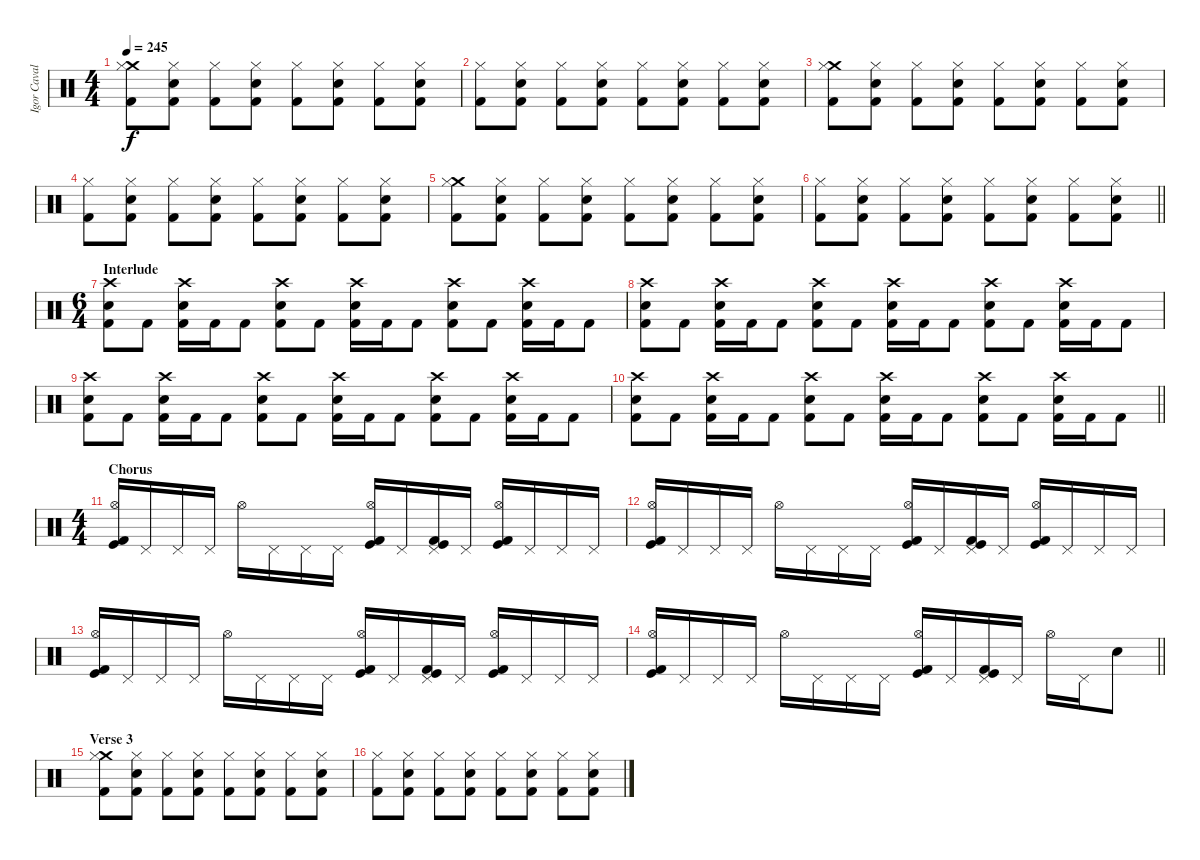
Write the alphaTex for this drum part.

\track ("Igor Cavalera" "Igor Caval") {instrument percussion}
\staff {score}
\articulation defaults
\ts (4 4)
\tempo 245
\clef neutral
\ks c
("Crash medium (hit)" "Hi-Hat (closed)" "Kick (hit) 2").8{dy f} ("Hi-Hat (closed)" "Electric Snare (hit)" "Kick (hit) 2").8 ("Hi-Hat (closed)" "Kick (hit) 2").8 ("Hi-Hat (closed)" "Electric Snare (hit)" "Kick (hit) 2").8 ("Hi-Hat (closed)" "Kick (hit) 2").8 ("Hi-Hat (closed)" "Electric Snare (hit)" "Kick (hit) 2").8 ("Hi-Hat (closed)" "Kick (hit) 2").8 ("Hi-Hat (closed)" "Electric Snare (hit)" "Kick (hit) 2").8 |
("Hi-Hat (closed)" "Kick (hit) 2").8 ("Hi-Hat (closed)" "Electric Snare (hit)" "Kick (hit) 2").8 ("Hi-Hat (closed)" "Kick (hit) 2").8 ("Hi-Hat (closed)" "Electric Snare (hit)" "Kick (hit) 2").8 ("Hi-Hat (closed)" "Kick (hit) 2").8 ("Hi-Hat (closed)" "Electric Snare (hit)" "Kick (hit) 2").8 ("Hi-Hat (closed)" "Kick (hit) 2").8 ("Hi-Hat (closed)" "Electric Snare (hit)" "Kick (hit) 2").8 |
("Crash medium (hit)" "Hi-Hat (closed)" "Kick (hit) 2").8 ("Hi-Hat (closed)" "Electric Snare (hit)" "Kick (hit) 2").8 ("Hi-Hat (closed)" "Kick (hit) 2").8 ("Hi-Hat (closed)" "Electric Snare (hit)" "Kick (hit) 2").8 ("Hi-Hat (closed)" "Kick (hit) 2").8 ("Hi-Hat (closed)" "Electric Snare (hit)" "Kick (hit) 2").8 ("Hi-Hat (closed)" "Kick (hit) 2").8 ("Hi-Hat (closed)" "Electric Snare (hit)" "Kick (hit) 2").8 |
("Hi-Hat (closed)" "Kick (hit) 2").8 ("Hi-Hat (closed)" "Electric Snare (hit)" "Kick (hit) 2").8 ("Hi-Hat (closed)" "Kick (hit) 2").8 ("Hi-Hat (closed)" "Electric Snare (hit)" "Kick (hit) 2").8 ("Hi-Hat (closed)" "Kick (hit) 2").8 ("Hi-Hat (closed)" "Electric Snare (hit)" "Kick (hit) 2").8 ("Hi-Hat (closed)" "Kick (hit) 2").8 ("Hi-Hat (closed)" "Electric Snare (hit)" "Kick (hit) 2").8 |
("Crash medium (hit)" "Hi-Hat (closed)" "Kick (hit) 2").8 ("Hi-Hat (closed)" "Electric Snare (hit)" "Kick (hit) 2").8 ("Hi-Hat (closed)" "Kick (hit) 2").8 ("Hi-Hat (closed)" "Electric Snare (hit)" "Kick (hit) 2").8 ("Hi-Hat (closed)" "Kick (hit) 2").8 ("Hi-Hat (closed)" "Electric Snare (hit)" "Kick (hit) 2").8 ("Hi-Hat (closed)" "Kick (hit) 2").8 ("Hi-Hat (closed)" "Electric Snare (hit)" "Kick (hit) 2").8 |
\barLineRight lightlight
("Hi-Hat (closed)" "Kick (hit) 2").8 ("Hi-Hat (closed)" "Electric Snare (hit)" "Kick (hit) 2").8 ("Hi-Hat (closed)" "Kick (hit) 2").8 ("Hi-Hat (closed)" "Electric Snare (hit)" "Kick (hit) 2").8 ("Hi-Hat (closed)" "Kick (hit) 2").8 ("Hi-Hat (closed)" "Electric Snare (hit)" "Kick (hit) 2").8 ("Hi-Hat (closed)" "Kick (hit) 2").8 ("Hi-Hat (closed)" "Electric Snare (hit)" "Kick (hit) 2").8 |
\ts (6 4)
\section ("" "Interlude")
("Crash high (hit)" "Electric Snare (hit)" "Kick (hit) 2").8 "Kick (hit) 2".8 ("Crash high (hit)" "Electric Snare (hit)" "Kick (hit) 2").16 "Kick (hit) 2".16 "Kick (hit) 2".8 ("Crash high (hit)" "Electric Snare (hit)" "Kick (hit) 2").8 "Kick (hit) 2".8 ("Crash high (hit)" "Electric Snare (hit)" "Kick (hit) 2").16 "Kick (hit) 2".16 "Kick (hit) 2".8 ("Crash high (hit)" "Electric Snare (hit)" "Kick (hit) 2").8 "Kick (hit) 2".8 ("Crash high (hit)" "Electric Snare (hit)" "Kick (hit) 2").16 "Kick (hit) 2".16 "Kick (hit) 2".8 |
("Crash high (hit)" "Electric Snare (hit)" "Kick (hit) 2").8 "Kick (hit) 2".8 ("Crash high (hit)" "Electric Snare (hit)" "Kick (hit) 2").16 "Kick (hit) 2".16 "Kick (hit) 2".8 ("Crash high (hit)" "Electric Snare (hit)" "Kick (hit) 2").8 "Kick (hit) 2".8 ("Crash high (hit)" "Electric Snare (hit)" "Kick (hit) 2").16 "Kick (hit) 2".16 "Kick (hit) 2".8 ("Crash high (hit)" "Electric Snare (hit)" "Kick (hit) 2").8 "Kick (hit) 2".8 ("Crash high (hit)" "Electric Snare (hit)" "Kick (hit) 2").16 "Kick (hit) 2".16 "Kick (hit) 2".8 |
("Crash high (hit)" "Electric Snare (hit)" "Kick (hit) 2").8 "Kick (hit) 2".8 ("Crash high (hit)" "Electric Snare (hit)" "Kick (hit) 2").16 "Kick (hit) 2".16 "Kick (hit) 2".8 ("Crash high (hit)" "Electric Snare (hit)" "Kick (hit) 2").8 "Kick (hit) 2".8 ("Crash high (hit)" "Electric Snare (hit)" "Kick (hit) 2").16 "Kick (hit) 2".16 "Kick (hit) 2".8 ("Crash high (hit)" "Electric Snare (hit)" "Kick (hit) 2").8 "Kick (hit) 2".8 ("Crash high (hit)" "Electric Snare (hit)" "Kick (hit) 2").16 "Kick (hit) 2".16 "Kick (hit) 2".8 |
\barLineRight lightlight
("Crash high (hit)" "Electric Snare (hit)" "Kick (hit) 2").8 "Kick (hit) 2".8 ("Crash high (hit)" "Electric Snare (hit)" "Kick (hit) 2").16 "Kick (hit) 2".16 "Kick (hit) 2".8 ("Crash high (hit)" "Electric Snare (hit)" "Kick (hit) 2").8 "Kick (hit) 2".8 ("Crash high (hit)" "Electric Snare (hit)" "Kick (hit) 2").16 "Kick (hit) 2".16 "Kick (hit) 2".8 ("Crash high (hit)" "Electric Snare (hit)" "Kick (hit) 2").8 "Kick (hit) 2".8 ("Crash high (hit)" "Electric Snare (hit)" "Kick (hit) 2").16 "Kick (hit) 2".16 "Kick (hit) 2".8 |
\ts (4 4)
\section ("" "Chorus")
("Hi-Hat (open)" "Kick (hit) 2" "Kick (hit)").16 "Pedal Hi-Hat (hit)".16 "Pedal Hi-Hat (hit)".16 "Pedal Hi-Hat (hit)".16 "Hi-Hat (open)".16 "Pedal Hi-Hat (hit)".16 "Pedal Hi-Hat (hit)".16 "Pedal Hi-Hat (hit)".16 ("Hi-Hat (open)" "Kick (hit) 2" "Kick (hit)").16 "Pedal Hi-Hat (hit)".16 ("Pedal Hi-Hat (hit)" "Kick (hit) 2" "Kick (hit)").16 "Pedal Hi-Hat (hit)".16 ("Hi-Hat (open)" "Kick (hit) 2" "Kick (hit)").16 "Pedal Hi-Hat (hit)".16 "Pedal Hi-Hat (hit)".16 "Pedal Hi-Hat (hit)".16 |
("Hi-Hat (open)" "Kick (hit) 2" "Kick (hit)").16 "Pedal Hi-Hat (hit)".16 "Pedal Hi-Hat (hit)".16 "Pedal Hi-Hat (hit)".16 "Hi-Hat (open)".16 "Pedal Hi-Hat (hit)".16 "Pedal Hi-Hat (hit)".16 "Pedal Hi-Hat (hit)".16 ("Hi-Hat (open)" "Kick (hit) 2" "Kick (hit)").16 "Pedal Hi-Hat (hit)".16 ("Pedal Hi-Hat (hit)" "Kick (hit) 2" "Kick (hit)").16 "Pedal Hi-Hat (hit)".16 ("Hi-Hat (open)" "Kick (hit) 2" "Kick (hit)").16 "Pedal Hi-Hat (hit)".16 "Pedal Hi-Hat (hit)".16 "Pedal Hi-Hat (hit)".16 |
("Hi-Hat (open)" "Kick (hit) 2" "Kick (hit)").16 "Pedal Hi-Hat (hit)".16 "Pedal Hi-Hat (hit)".16 "Pedal Hi-Hat (hit)".16 "Hi-Hat (open)".16 "Pedal Hi-Hat (hit)".16 "Pedal Hi-Hat (hit)".16 "Pedal Hi-Hat (hit)".16 ("Hi-Hat (open)" "Kick (hit) 2" "Kick (hit)").16 "Pedal Hi-Hat (hit)".16 ("Pedal Hi-Hat (hit)" "Kick (hit) 2" "Kick (hit)").16 "Pedal Hi-Hat (hit)".16 ("Hi-Hat (open)" "Kick (hit) 2" "Kick (hit)").16 "Pedal Hi-Hat (hit)".16 "Pedal Hi-Hat (hit)".16 "Pedal Hi-Hat (hit)".16 |
\barLineRight lightlight
("Hi-Hat (open)" "Kick (hit) 2" "Kick (hit)").16 "Pedal Hi-Hat (hit)".16 "Pedal Hi-Hat (hit)".16 "Pedal Hi-Hat (hit)".16 "Hi-Hat (open)".16 "Pedal Hi-Hat (hit)".16 "Pedal Hi-Hat (hit)".16 "Pedal Hi-Hat (hit)".16 ("Hi-Hat (open)" "Kick (hit) 2" "Kick (hit)").16 "Pedal Hi-Hat (hit)".16 ("Pedal Hi-Hat (hit)" "Kick (hit) 2" "Kick (hit)").16 "Pedal Hi-Hat (hit)".16 "Hi-Hat (open)".16 "Pedal Hi-Hat (hit)".16 "Electric Snare (hit)".8 |
\section ("" "Verse 3")
("Crash medium (hit)" "Hi-Hat (closed)" "Kick (hit) 2").8 ("Hi-Hat (closed)" "Electric Snare (hit)" "Kick (hit) 2").8 ("Hi-Hat (closed)" "Kick (hit) 2").8 ("Hi-Hat (closed)" "Electric Snare (hit)" "Kick (hit) 2").8 ("Hi-Hat (closed)" "Kick (hit) 2").8 ("Hi-Hat (closed)" "Electric Snare (hit)" "Kick (hit) 2").8 ("Hi-Hat (closed)" "Kick (hit) 2").8 ("Hi-Hat (closed)" "Electric Snare (hit)" "Kick (hit) 2").8 |
("Hi-Hat (closed)" "Kick (hit) 2").8 ("Hi-Hat (closed)" "Electric Snare (hit)" "Kick (hit) 2").8 ("Hi-Hat (closed)" "Kick (hit) 2").8 ("Hi-Hat (closed)" "Electric Snare (hit)" "Kick (hit) 2").8 ("Hi-Hat (closed)" "Kick (hit) 2").8 ("Hi-Hat (closed)" "Electric Snare (hit)" "Kick (hit) 2").8 ("Hi-Hat (closed)" "Kick (hit) 2").8 ("Hi-Hat (closed)" "Electric Snare (hit)" "Kick (hit) 2").8
